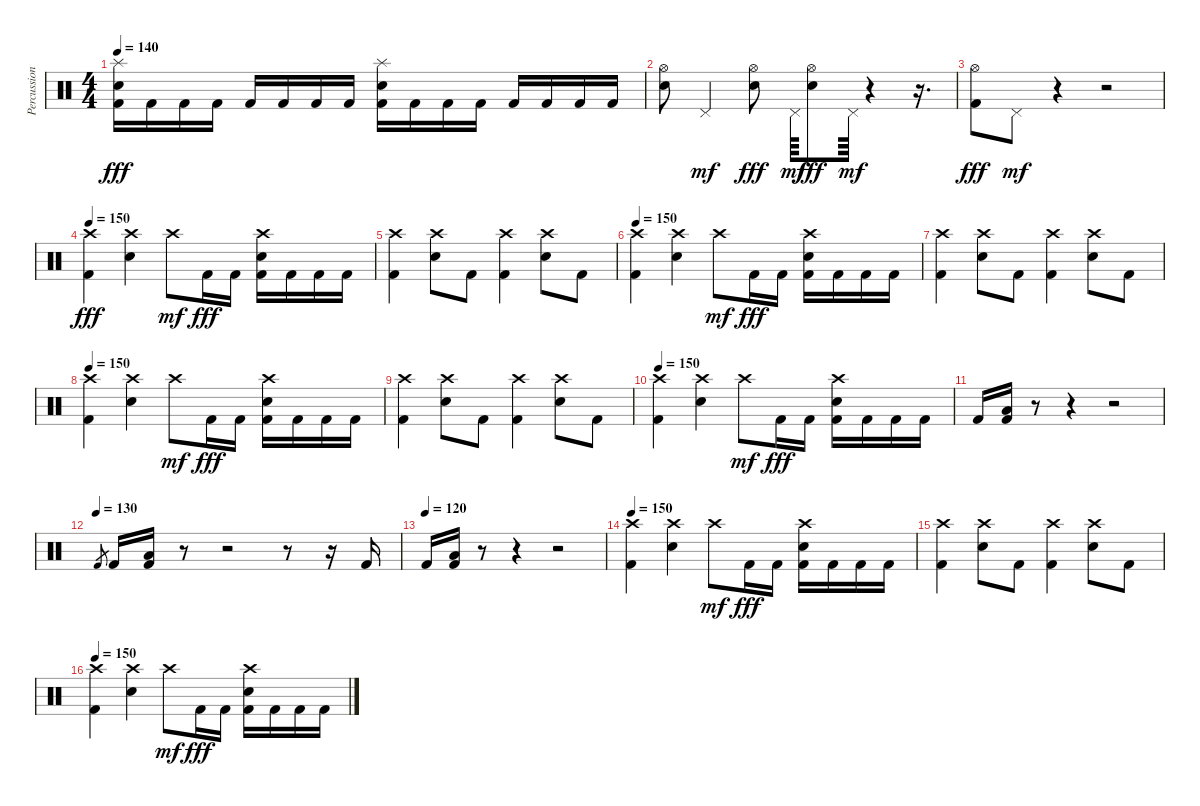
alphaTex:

\track ("Percussion" "Percussion") {instrument percussion}
\staff {score}
\articulation defaults
\ts (4 4)
\tempo 140
\clef neutral
\ks c
("Splash (hit)" "Electric Snare (hit)" "Kick (hit) 2").16{dy fff} "Kick (hit) 2".16 "Kick (hit) 2".16 "Kick (hit) 2".16 "Kick (hit) 2".16 "Kick (hit) 2".16 "Kick (hit) 2".16 "Kick (hit) 2".16 ("Splash (hit)" "Electric Snare (hit)" "Kick (hit) 2").16 "Kick (hit) 2".16 "Kick (hit) 2".16 "Kick (hit) 2".16 "Kick (hit) 2".16 "Kick (hit) 2".16 "Kick (hit) 2".16 "Kick (hit) 2".16 |
("Hi-Hat (open)" "Electric Snare (hit)").8 "Pedal Hi-Hat (hit)".4{dy mf} ("Hi-Hat (open)" "Electric Snare (hit)").8{dy fff} "Pedal Hi-Hat (hit)".64{dy mf} ("Hi-Hat (open)" "Electric Snare (hit)").8{dy fff} "Pedal Hi-Hat (hit)".64{dy mf} r.4 r.16{d} |
("Hi-Hat (open)" "Kick (hit) 2").8{dy fff} "Pedal Hi-Hat (hit)".8{dy mf} r.4 r.2 |
\tempo 150
("Crash high (hit)" "Kick (hit) 2").4{dy fff} ("Crash high (hit)" "Electric Snare (hit)").4 "Crash high (hit)".8{dy mf} "Kick (hit) 2".16{dy fff} "Kick (hit) 2".16 ("Crash high (hit)" "Electric Snare (hit)" "Kick (hit) 2").16 "Kick (hit) 2".16 "Kick (hit) 2".16 "Kick (hit) 2".16 |
("Crash high (hit)" "Kick (hit) 2").4 ("Crash high (hit)" "Electric Snare (hit)").8 "Kick (hit) 2".8 ("Crash high (hit)" "Kick (hit) 2").4 ("Crash high (hit)" "Electric Snare (hit)").8 "Kick (hit) 2".8 |
\tempo 150
("Crash high (hit)" "Kick (hit) 2").4 ("Crash high (hit)" "Electric Snare (hit)").4 "Crash high (hit)".8{dy mf} "Kick (hit) 2".16{dy fff} "Kick (hit) 2".16 ("Crash high (hit)" "Electric Snare (hit)" "Kick (hit) 2").16 "Kick (hit) 2".16 "Kick (hit) 2".16 "Kick (hit) 2".16 |
("Crash high (hit)" "Kick (hit) 2").4 ("Crash high (hit)" "Electric Snare (hit)").8 "Kick (hit) 2".8 ("Crash high (hit)" "Kick (hit) 2").4 ("Crash high (hit)" "Electric Snare (hit)").8 "Kick (hit) 2".8 |
\tempo 150
("Crash high (hit)" "Kick (hit) 2").4 ("Crash high (hit)" "Electric Snare (hit)").4 "Crash high (hit)".8{dy mf} "Kick (hit) 2".16{dy fff} "Kick (hit) 2".16 ("Crash high (hit)" "Electric Snare (hit)" "Kick (hit) 2").16 "Kick (hit) 2".16 "Kick (hit) 2".16 "Kick (hit) 2".16 |
("Crash high (hit)" "Kick (hit) 2").4 ("Crash high (hit)" "Electric Snare (hit)").8 "Kick (hit) 2".8 ("Crash high (hit)" "Kick (hit) 2").4 ("Crash high (hit)" "Electric Snare (hit)").8 "Kick (hit) 2".8 |
\tempo 150
("Crash high (hit)" "Kick (hit) 2").4 ("Crash high (hit)" "Electric Snare (hit)").4 "Crash high (hit)".8{dy mf} "Kick (hit) 2".16{dy fff} "Kick (hit) 2".16 ("Crash high (hit)" "Electric Snare (hit)" "Kick (hit) 2").16 "Kick (hit) 2".16 "Kick (hit) 2".16 "Kick (hit) 2".16 |
"Kick (hit) 2".16 ("Low Floor Tom (hit)" "Kick (hit) 2").16 r.8 r.4 r.2 |
\tempo (130)
"Kick (hit) 2".8{gr} "Kick (hit) 2".16 ("Low Floor Tom (hit)" "Kick (hit) 2").16 r.8 r.2 r.8 r.16 "Kick (hit) 2".16 |
\tempo (120)
"Kick (hit) 2".16 ("Low Floor Tom (hit)" "Kick (hit) 2").16 r.8 r.4 r.2 |
\tempo 150
("Crash high (hit)" "Kick (hit) 2").4 ("Crash high (hit)" "Electric Snare (hit)").4 "Crash high (hit)".8{dy mf} "Kick (hit) 2".16{dy fff} "Kick (hit) 2".16 ("Crash high (hit)" "Electric Snare (hit)" "Kick (hit) 2").16 "Kick (hit) 2".16 "Kick (hit) 2".16 "Kick (hit) 2".16 |
("Crash high (hit)" "Kick (hit) 2").4 ("Crash high (hit)" "Electric Snare (hit)").8 "Kick (hit) 2".8 ("Crash high (hit)" "Kick (hit) 2").4 ("Crash high (hit)" "Electric Snare (hit)").8 "Kick (hit) 2".8 |
\tempo 150
("Crash high (hit)" "Kick (hit) 2").4 ("Crash high (hit)" "Electric Snare (hit)").4 "Crash high (hit)".8{dy mf} "Kick (hit) 2".16{dy fff} "Kick (hit) 2".16 ("Crash high (hit)" "Electric Snare (hit)" "Kick (hit) 2").16 "Kick (hit) 2".16 "Kick (hit) 2".16 "Kick (hit) 2".16
